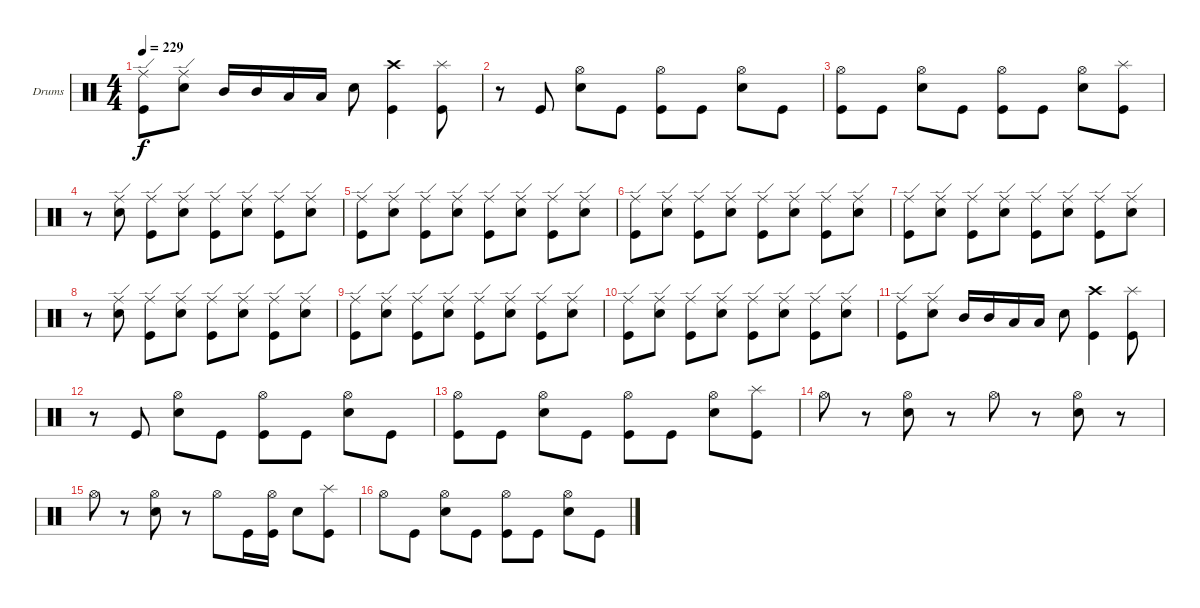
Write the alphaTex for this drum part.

\defaultSystemsLayout 4
\bracketExtendMode groupsimilarinstruments
\firstSystemTrackNameOrientation horizontal
\otherSystemsTrackNameOrientation horizontal
\track ("Drumkit" "Drums") {instrument percussion}
\staff {score}
\articulation defaults
\ts (4 4)
\tempo 229
\clef neutral
\ks c
("Kick (hit)" "Ride (edge)").8{dy f} ("Snare (hit) 2" "Ride (edge)").8 "Mid Tom (hit)".16 "Mid Tom (hit)".16 "Low Tom (hit)".16 "Low Tom (hit)".16 "Snare (hit) 2".8 ("Kick (hit)" "Crash high (hit)").4 ("Kick (hit)" "Splash (hit)").8 |
r.8 "Kick (hit)".8 ("Snare (hit) 2" "Hi-Hat (open)").8 "Kick (hit)".8 ("Kick (hit)" "Hi-Hat (open)").8 "Kick (hit)".8 ("Snare (hit) 2" "Hi-Hat (open)").8 "Kick (hit)".8 |
("Kick (hit)" "Hi-Hat (open)").8 "Kick (hit)".8 ("Snare (hit) 2" "Hi-Hat (open)").8 "Kick (hit)".8 ("Kick (hit)" "Hi-Hat (open)").8 "Kick (hit)".8 ("Snare (hit) 2" "Hi-Hat (open)").8 ("Kick (hit)" "Splash (hit)").8 |
r.8 ("Snare (hit) 2" "Ride (edge)").8 ("Kick (hit)" "Ride (edge)").8 ("Snare (hit) 2" "Ride (edge)").8 ("Kick (hit)" "Ride (edge)").8 ("Snare (hit) 2" "Ride (edge)").8 ("Kick (hit)" "Ride (edge)").8 ("Ride (edge)" "Snare (hit) 2").8 |
("Kick (hit)" "Ride (edge)").8 ("Snare (hit) 2" "Ride (edge)").8 ("Kick (hit)" "Ride (edge)").8 ("Ride (edge)" "Snare (hit) 2").8 ("Kick (hit)" "Ride (edge)").8 ("Snare (hit) 2" "Ride (edge)").8 ("Kick (hit)" "Ride (edge)").8 ("Ride (edge)" "Snare (hit) 2").8 |
("Kick (hit)" "Ride (edge)").8 ("Snare (hit) 2" "Ride (edge)").8 ("Kick (hit)" "Ride (edge)").8 ("Ride (edge)" "Snare (hit) 2").8 ("Kick (hit)" "Ride (edge)").8 ("Snare (hit) 2" "Ride (edge)").8 ("Kick (hit)" "Ride (edge)").8 ("Ride (edge)" "Snare (hit) 2").8 |
("Kick (hit)" "Ride (edge)").8 ("Snare (hit) 2" "Ride (edge)").8 ("Kick (hit)" "Ride (edge)").8 ("Ride (edge)" "Snare (hit) 2").8 ("Kick (hit)" "Ride (edge)").8 ("Snare (hit) 2" "Ride (edge)").8 ("Kick (hit)" "Ride (edge)").8 ("Ride (edge)" "Snare (hit) 2").8 |
r.8 ("Snare (hit) 2" "Ride (edge)").8 ("Kick (hit)" "Ride (edge)").8 ("Snare (hit) 2" "Ride (edge)").8 ("Kick (hit)" "Ride (edge)").8 ("Snare (hit) 2" "Ride (edge)").8 ("Kick (hit)" "Ride (edge)").8 ("Ride (edge)" "Snare (hit) 2").8 |
("Kick (hit)" "Ride (edge)").8 ("Snare (hit) 2" "Ride (edge)").8 ("Kick (hit)" "Ride (edge)").8 ("Ride (edge)" "Snare (hit) 2").8 ("Kick (hit)" "Ride (edge)").8 ("Snare (hit) 2" "Ride (edge)").8 ("Kick (hit)" "Ride (edge)").8 ("Ride (edge)" "Snare (hit) 2").8 |
("Kick (hit)" "Ride (edge)").8 ("Snare (hit) 2" "Ride (edge)").8 ("Kick (hit)" "Ride (edge)").8 ("Ride (edge)" "Snare (hit) 2").8 ("Kick (hit)" "Ride (edge)").8 ("Snare (hit) 2" "Ride (edge)").8 ("Kick (hit)" "Ride (edge)").8 ("Ride (edge)" "Snare (hit) 2").8 |
("Kick (hit)" "Ride (edge)").8 ("Snare (hit) 2" "Ride (edge)").8 "Mid Tom (hit)".16 "Mid Tom (hit)".16 "Low Tom (hit)".16 "Low Tom (hit)".16 "Snare (hit) 2".8 ("Kick (hit)" "Crash high (hit)").4 ("Kick (hit)" "Splash (hit)").8 |
r.8 "Kick (hit)".8 ("Snare (hit) 2" "Hi-Hat (open)").8 "Kick (hit)".8 ("Kick (hit)" "Hi-Hat (open)").8 "Kick (hit)".8 ("Snare (hit) 2" "Hi-Hat (open)").8 "Kick (hit)".8 |
("Kick (hit)" "Hi-Hat (open)").8 "Kick (hit)".8 ("Snare (hit) 2" "Hi-Hat (open)").8 "Kick (hit)".8 ("Kick (hit)" "Hi-Hat (open)").8 "Kick (hit)".8 ("Snare (hit) 2" "Hi-Hat (open)").8 ("Kick (hit)" "Splash (hit)").8 |
"Hi-Hat (open)".8 r.8 ("Snare (hit) 2" "Hi-Hat (open)").8 r.8 "Hi-Hat (open)".8 r.8 ("Snare (hit) 2" "Hi-Hat (open)").8 r.8 |
"Hi-Hat (open)".8 r.8 ("Snare (hit) 2" "Hi-Hat (open)").8 r.8 "Hi-Hat (open)".8 "Kick (hit)".16 ("Hi-Hat (open)" "Kick (hit)").16 "Snare (hit) 2".8 ("Kick (hit)" "Splash (hit)").8 |
"Hi-Hat (open)".8 "Kick (hit)".8 ("Snare (hit) 2" "Hi-Hat (open)").8 "Kick (hit)".8 ("Kick (hit)" "Hi-Hat (open)").8 "Kick (hit)".8 ("Snare (hit) 2" "Hi-Hat (open)").8 "Kick (hit)".8
